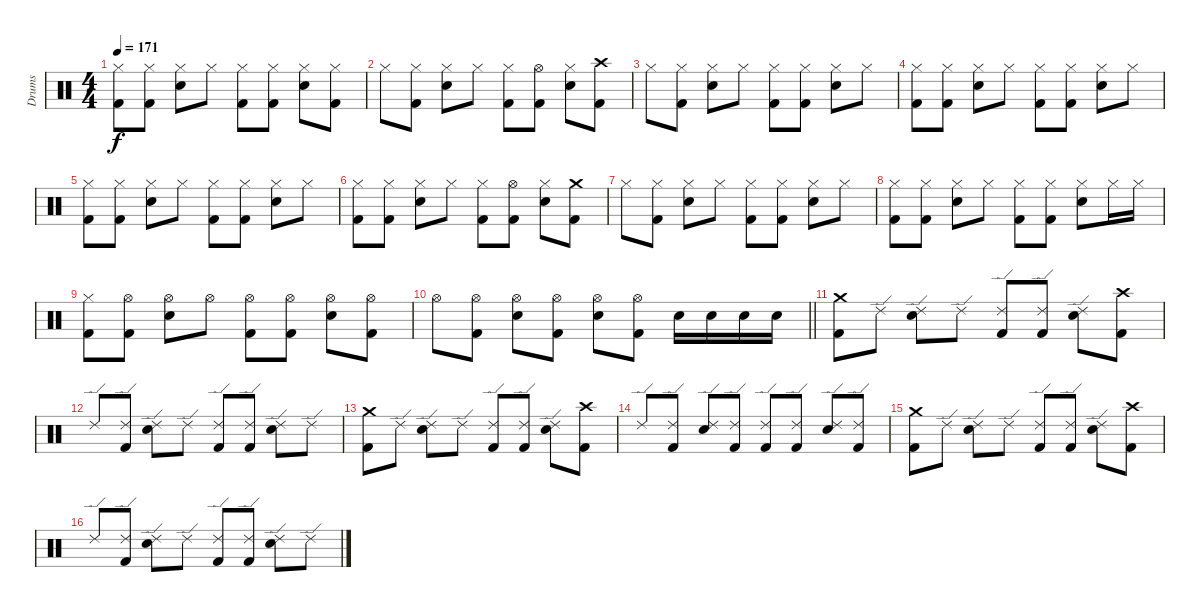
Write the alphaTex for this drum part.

\track ("Drums" "Drums") {instrument percussion}
\staff {score}
\articulation defaults
\ts (4 4)
\tempo 171
\clef neutral
\ks c
("Hi-Hat (closed)" "Kick (hit) 2").8{dy f} ("Hi-Hat (closed)" "Kick (hit) 2").8 ("Hi-Hat (closed)" "Electric Snare (hit)").8 "Hi-Hat (closed)".8 ("Hi-Hat (closed)" "Kick (hit) 2").8 ("Hi-Hat (closed)" "Kick (hit) 2").8 ("Hi-Hat (closed)" "Electric Snare (hit)").8 ("Hi-Hat (closed)" "Kick (hit) 2").8 |
"Hi-Hat (closed)".8 ("Hi-Hat (closed)" "Kick (hit) 2").8 ("Hi-Hat (closed)" "Electric Snare (hit)").8 "Hi-Hat (closed)".8 ("Hi-Hat (closed)" "Kick (hit) 2").8 ("Hi-Hat (open)" "Kick (hit) 2").8 ("Hi-Hat (closed)" "Electric Snare (hit)").8 ("Crash high (hit)" "Kick (hit) 2").8 |
"Hi-Hat (closed)".8 ("Hi-Hat (closed)" "Kick (hit) 2").8 ("Hi-Hat (closed)" "Electric Snare (hit)").8 "Hi-Hat (closed)".8 ("Hi-Hat (closed)" "Kick (hit) 2").8 ("Hi-Hat (closed)" "Kick (hit) 2").8 ("Hi-Hat (closed)" "Electric Snare (hit)").8 "Hi-Hat (closed)".8 |
("Hi-Hat (closed)" "Kick (hit) 2").8 ("Hi-Hat (closed)" "Kick (hit) 2").8 ("Hi-Hat (closed)" "Electric Snare (hit)").8 "Hi-Hat (closed)".8 ("Hi-Hat (closed)" "Kick (hit) 2").8 ("Hi-Hat (closed)" "Kick (hit) 2").8 ("Hi-Hat (closed)" "Electric Snare (hit)").8 "Hi-Hat (closed)".8 |
("Hi-Hat (closed)" "Kick (hit) 2").8 ("Hi-Hat (closed)" "Kick (hit) 2").8 ("Hi-Hat (closed)" "Electric Snare (hit)").8 "Hi-Hat (closed)".8 ("Hi-Hat (closed)" "Kick (hit) 2").8 ("Hi-Hat (closed)" "Kick (hit) 2").8 ("Hi-Hat (closed)" "Electric Snare (hit)").8 "Hi-Hat (closed)".8 |
("Hi-Hat (closed)" "Kick (hit) 2").8 ("Hi-Hat (closed)" "Kick (hit) 2").8 ("Hi-Hat (closed)" "Electric Snare (hit)").8 "Hi-Hat (closed)".8 ("Hi-Hat (closed)" "Kick (hit) 2").8 ("Hi-Hat (open)" "Kick (hit) 2").8 ("Hi-Hat (closed)" "Electric Snare (hit)").8 ("Crash medium (hit)" "Kick (hit) 2").8 |
"Hi-Hat (closed)".8 ("Hi-Hat (closed)" "Kick (hit) 2").8 ("Hi-Hat (closed)" "Electric Snare (hit)").8 "Hi-Hat (closed)".8 ("Hi-Hat (closed)" "Kick (hit) 2").8 ("Hi-Hat (closed)" "Kick (hit) 2").8 ("Hi-Hat (closed)" "Electric Snare (hit)").8 "Hi-Hat (closed)".8 |
("Hi-Hat (closed)" "Kick (hit) 2").8 ("Hi-Hat (closed)" "Kick (hit) 2").8 ("Hi-Hat (closed)" "Electric Snare (hit)").8 "Hi-Hat (closed)".8 ("Hi-Hat (closed)" "Kick (hit) 2").8 ("Hi-Hat (closed)" "Kick (hit) 2").8 ("Hi-Hat (closed)" "Electric Snare (hit)").8 "Hi-Hat (closed)".16 "Hi-Hat (closed)".16 |
("Hi-Hat (closed)" "Kick (hit) 2").8 ("Hi-Hat (open)" "Kick (hit) 2").8 ("Hi-Hat (open)" "Electric Snare (hit)").8 "Hi-Hat (open)".8 ("Hi-Hat (open)" "Kick (hit) 2").8 ("Hi-Hat (open)" "Kick (hit) 2").8 ("Hi-Hat (open)" "Electric Snare (hit)").8 ("Hi-Hat (open)" "Kick (hit) 2").8 |
\barLineRight lightlight "Hi-Hat (open)".8
("Hi-Hat (open)" "Kick (hit) 2").8 ("Hi-Hat (open)" "Electric Snare (hit)").8 ("Hi-Hat (open)" "Kick (hit) 2").8 ("Hi-Hat (open)" "Electric Snare (hit)").8 ("Hi-Hat (open)" "Kick (hit) 2").8 "Electric Snare (hit)".16 "Electric Snare (hit)".16 "Electric Snare (hit)".16 "Electric Snare (hit)".16 |
("Crash medium (hit)" "Kick (hit) 2").8 "Ride (edge) 2".8 ("Ride (edge) 2" "Electric Snare (hit)").8 "Ride (edge) 2".8 ("Ride (edge) 2" "Kick (hit) 2").8 ("Ride (edge) 2" "Kick (hit) 2").8 ("Ride (edge) 2" "Electric Snare (hit)").8 ("Crash high (hit)" "Kick (hit) 2").8 |
"Ride (edge) 2".8 ("Ride (edge) 2" "Kick (hit) 2").8 ("Ride (edge) 2" "Electric Snare (hit)").8 "Ride (edge) 2".8 ("Ride (edge) 2" "Kick (hit) 2").8 ("Ride (edge) 2" "Kick (hit) 2").8 ("Ride (edge) 2" "Electric Snare (hit)").8 "Ride (edge) 2".8 |
("Crash medium (hit)" "Kick (hit) 2").8 "Ride (edge) 2".8 ("Ride (edge) 2" "Electric Snare (hit)").8 "Ride (edge) 2".8 ("Ride (edge) 2" "Kick (hit) 2").8 ("Ride (edge) 2" "Kick (hit) 2").8 ("Ride (edge) 2" "Electric Snare (hit)").8 ("Crash high (hit)" "Kick (hit) 2").8 |
"Ride (edge) 2".8 ("Ride (edge) 2" "Kick (hit) 2").8 ("Ride (edge) 2" "Electric Snare (hit)").8 ("Ride (edge) 2" "Kick (hit) 2").8 ("Ride (edge) 2" "Kick (hit) 2").8 ("Ride (edge) 2" "Kick (hit) 2").8 ("Ride (edge) 2" "Electric Snare (hit)").8 ("Ride (edge) 2" "Kick (hit) 2").8 |
("Crash medium (hit)" "Kick (hit) 2").8 "Ride (edge) 2".8 ("Ride (edge) 2" "Electric Snare (hit)").8 "Ride (edge) 2".8 ("Ride (edge) 2" "Kick (hit) 2").8 ("Ride (edge) 2" "Kick (hit) 2").8 ("Ride (edge) 2" "Electric Snare (hit)").8 ("Crash high (hit)" "Kick (hit) 2").8 |
"Ride (edge) 2".8 ("Ride (edge) 2" "Kick (hit) 2").8 ("Ride (edge) 2" "Electric Snare (hit)").8 "Ride (edge) 2".8 ("Ride (edge) 2" "Kick (hit) 2").8 ("Ride (edge) 2" "Kick (hit) 2").8 ("Ride (edge) 2" "Electric Snare (hit)").8 "Ride (edge) 2".8
